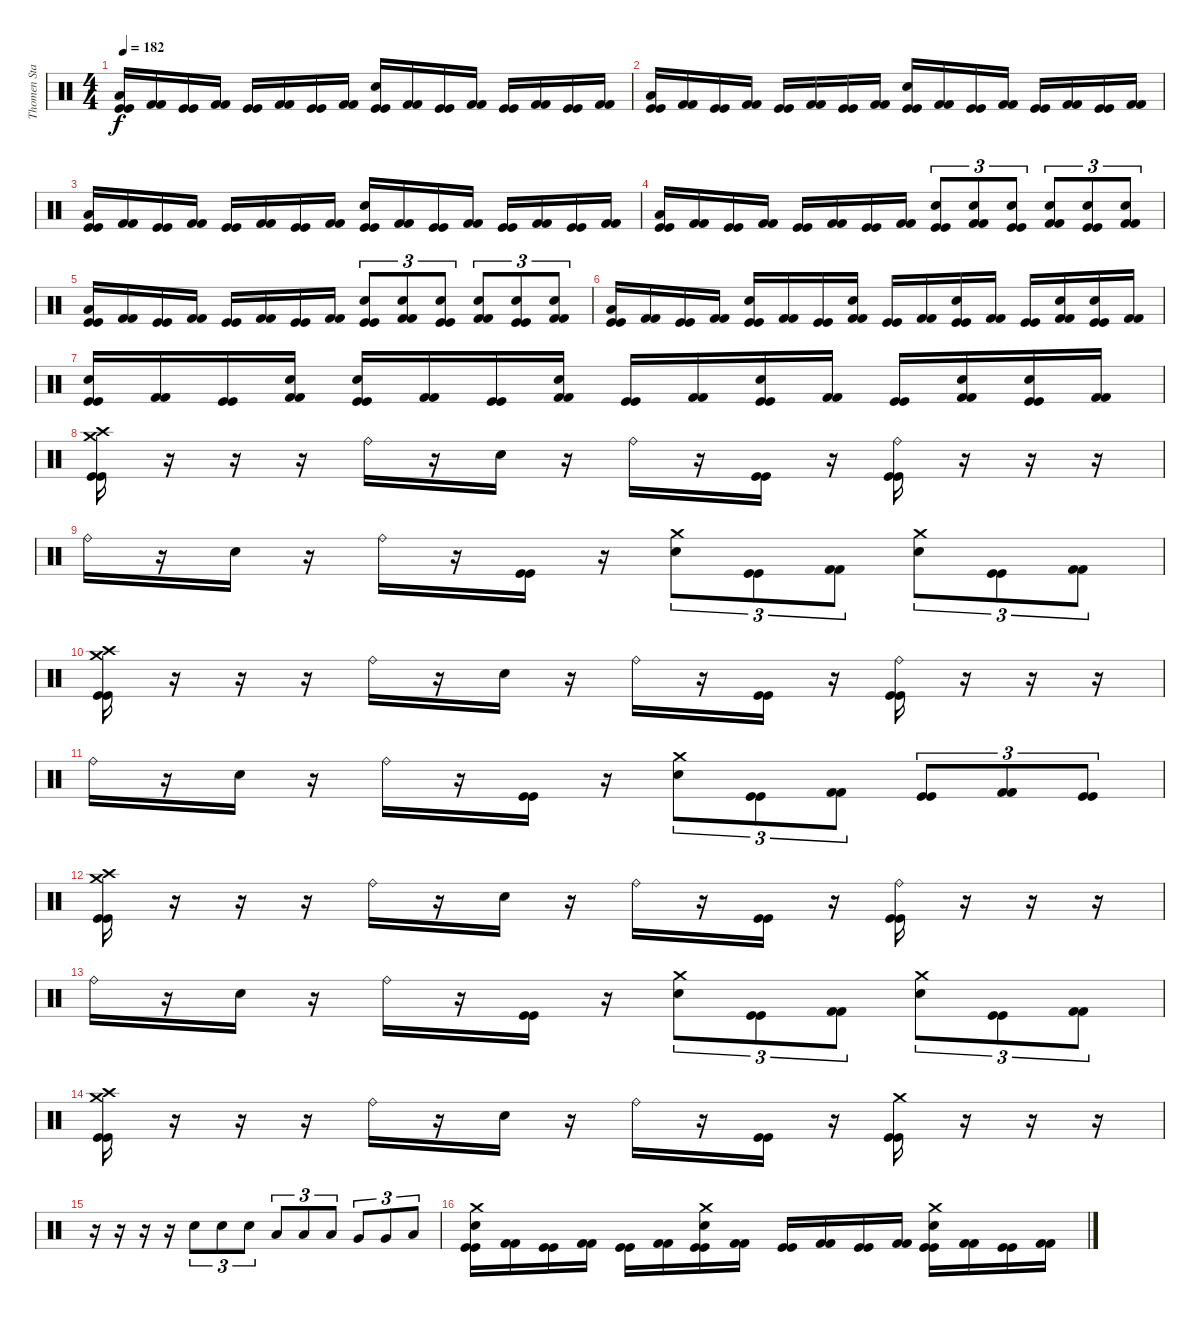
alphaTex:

\track ("Thomen Stauch" "Thomen Sta") {instrument percussion}
\staff {score}
\articulation defaults
\ts (4 4)
\tempo 182
\clef neutral
\ks c
("Low Floor Tom (hit)" "Kick (hit)" "Kick (hit)").16{dy f} ("Kick (hit) 2" "Kick (hit) 2").16 ("Kick (hit)" "Kick (hit)").16 ("Kick (hit) 2" "Kick (hit) 2").16 ("Kick (hit)" "Kick (hit)").16 ("Kick (hit) 2" "Kick (hit) 2").16 ("Kick (hit)" "Kick (hit)").16 ("Kick (hit) 2" "Kick (hit) 2").16 ("Snare (hit) 2" "Kick (hit)" "Kick (hit)").16 ("Kick (hit) 2" "Kick (hit) 2").16 ("Kick (hit)" "Kick (hit)").16 ("Kick (hit) 2" "Kick (hit) 2").16 ("Kick (hit)" "Kick (hit)").16 ("Kick (hit) 2" "Kick (hit) 2").16 ("Kick (hit)" "Kick (hit)").16 ("Kick (hit) 2" "Kick (hit) 2").16 |
("Low Floor Tom (hit)" "Kick (hit)" "Kick (hit)").16 ("Kick (hit) 2" "Kick (hit) 2").16 ("Kick (hit)" "Kick (hit)").16 ("Kick (hit) 2" "Kick (hit) 2").16 ("Kick (hit)" "Kick (hit)").16 ("Kick (hit) 2" "Kick (hit) 2").16 ("Kick (hit)" "Kick (hit)").16 ("Kick (hit) 2" "Kick (hit) 2").16 ("Snare (hit) 2" "Kick (hit)" "Kick (hit)").16 ("Kick (hit) 2" "Kick (hit) 2").16 ("Kick (hit)" "Kick (hit)").16 ("Kick (hit) 2" "Kick (hit) 2").16 ("Kick (hit)" "Kick (hit)").16 ("Kick (hit) 2" "Kick (hit) 2").16 ("Kick (hit)" "Kick (hit)").16 ("Kick (hit) 2" "Kick (hit) 2").16 |
("Low Floor Tom (hit)" "Kick (hit)" "Kick (hit)").16 ("Kick (hit) 2" "Kick (hit) 2").16 ("Kick (hit)" "Kick (hit)").16 ("Kick (hit) 2" "Kick (hit) 2").16 ("Kick (hit)" "Kick (hit)").16 ("Kick (hit) 2" "Kick (hit) 2").16 ("Kick (hit)" "Kick (hit)").16 ("Kick (hit) 2" "Kick (hit) 2").16 ("Snare (hit) 2" "Kick (hit)" "Kick (hit)").16 ("Kick (hit) 2" "Kick (hit) 2").16 ("Kick (hit)" "Kick (hit)").16 ("Kick (hit) 2" "Kick (hit) 2").16 ("Kick (hit)" "Kick (hit)").16 ("Kick (hit) 2" "Kick (hit) 2").16 ("Kick (hit)" "Kick (hit)").16 ("Kick (hit) 2" "Kick (hit) 2").16 |
("Low Floor Tom (hit)" "Kick (hit)" "Kick (hit)").16 ("Kick (hit) 2" "Kick (hit) 2").16 ("Kick (hit)" "Kick (hit)").16 ("Kick (hit) 2" "Kick (hit) 2").16 ("Kick (hit)" "Kick (hit)").16 ("Kick (hit) 2" "Kick (hit) 2").16 ("Kick (hit)" "Kick (hit)").16 ("Kick (hit) 2" "Kick (hit) 2").16 ("Snare (hit) 2" "Kick (hit)" "Kick (hit)").8{tu (3 2)} ("Snare (hit) 2" "Kick (hit) 2" "Kick (hit) 2").8{tu (3 2)} ("Snare (hit) 2" "Kick (hit)" "Kick (hit)").8{tu (3 2)} ("Snare (hit) 2" "Kick (hit) 2" "Kick (hit) 2").8{tu (3 2)} ("Snare (hit) 2" "Kick (hit)" "Kick (hit)").8{tu (3 2)} ("Snare (hit) 2" "Kick (hit) 2" "Kick (hit) 2").8{tu (3 2)} |
("Low Floor Tom (hit)" "Kick (hit)" "Kick (hit)").16 ("Kick (hit) 2" "Kick (hit) 2").16 ("Kick (hit)" "Kick (hit)").16 ("Kick (hit) 2" "Kick (hit) 2").16 ("Kick (hit)" "Kick (hit)").16 ("Kick (hit) 2" "Kick (hit) 2").16 ("Kick (hit)" "Kick (hit)").16 ("Kick (hit) 2" "Kick (hit) 2").16 ("Snare (hit) 2" "Kick (hit)" "Kick (hit)").8{tu (3 2)} ("Snare (hit) 2" "Kick (hit) 2" "Kick (hit) 2").8{tu (3 2)} ("Snare (hit) 2" "Kick (hit)" "Kick (hit)").8{tu (3 2)} ("Snare (hit) 2" "Kick (hit) 2" "Kick (hit) 2").8{tu (3 2)} ("Snare (hit) 2" "Kick (hit)" "Kick (hit)").8{tu (3 2)} ("Snare (hit) 2" "Kick (hit) 2" "Kick (hit) 2").8{tu (3 2)} |
("Low Floor Tom (hit)" "Kick (hit)" "Kick (hit)").16 ("Kick (hit) 2" "Kick (hit) 2").16 ("Kick (hit)" "Kick (hit)").16 ("Kick (hit) 2" "Kick (hit) 2").16 ("Snare (hit) 2" "Kick (hit)" "Kick (hit)").16 ("Kick (hit) 2" "Kick (hit) 2").16 ("Kick (hit)" "Kick (hit)").16 ("Snare (hit) 2" "Kick (hit) 2" "Kick (hit) 2").16 ("Kick (hit)" "Kick (hit)").16 ("Kick (hit) 2" "Kick (hit) 2").16 ("Snare (hit) 2" "Kick (hit)" "Kick (hit)").16 ("Kick (hit) 2" "Kick (hit) 2").16 ("Kick (hit)" "Kick (hit)").16 ("Snare (hit) 2" "Kick (hit) 2" "Kick (hit) 2").16 ("Snare (hit) 2" "Kick (hit)" "Kick (hit)").16 ("Kick (hit) 2" "Kick (hit) 2").16 |
("Snare (hit) 2" "Kick (hit)" "Kick (hit)").16 ("Kick (hit) 2" "Kick (hit) 2").16 ("Kick (hit)" "Kick (hit)").16 ("Snare (hit) 2" "Kick (hit) 2" "Kick (hit) 2").16 ("Snare (hit) 2" "Kick (hit)" "Kick (hit)").16 ("Kick (hit) 2" "Kick (hit) 2").16 ("Kick (hit)" "Kick (hit)").16 ("Snare (hit) 2" "Kick (hit) 2" "Kick (hit) 2").16 ("Kick (hit)" "Kick (hit)").16 ("Kick (hit) 2" "Kick (hit) 2").16 ("Snare (hit) 2" "Kick (hit)" "Kick (hit)").16 ("Kick (hit) 2" "Kick (hit) 2").16 ("Kick (hit)" "Kick (hit)").16 ("Snare (hit) 2" "Kick (hit) 2" "Kick (hit) 2").16 ("Snare (hit) 2" "Kick (hit)" "Kick (hit)").16 ("Kick (hit) 2" "Kick (hit) 2").16 |
("Crash medium (hit)" "Crash high (hit)" "Kick (hit)" "Kick (hit)").16 r.16 r.16 r.16 "Ride (bell)".16 r.16 "Snare (hit) 2".16 r.16 "Ride (bell)".16 r.16 ("Kick (hit)" "Kick (hit)").16 r.16 ("Ride (bell)" "Kick (hit)" "Kick (hit)").16 r.16 r.16 r.16 |
"Ride (bell)".16 r.16 "Snare (hit) 2".16 r.16 "Ride (bell)".16 r.16 ("Kick (hit)" "Kick (hit)").16 r.16 ("Crash medium (hit)" "Snare (hit) 2").8{tu (3 2)} ("Kick (hit)" "Kick (hit)").8{tu (3 2)} ("Kick (hit) 2" "Kick (hit) 2").8{tu (3 2)} ("Crash medium (hit)" "Snare (hit) 2").8{tu (3 2)} ("Kick (hit)" "Kick (hit)").8{tu (3 2)} ("Kick (hit) 2" "Kick (hit) 2").8{tu (3 2)} |
("Crash medium (hit)" "Crash high (hit)" "Kick (hit)" "Kick (hit)").16 r.16 r.16 r.16 "Ride (bell)".16 r.16 "Snare (hit) 2".16 r.16 "Ride (bell)".16 r.16 ("Kick (hit)" "Kick (hit)").16 r.16 ("Ride (bell)" "Kick (hit)" "Kick (hit)").16 r.16 r.16 r.16 |
"Ride (bell)".16 r.16 "Snare (hit) 2".16 r.16 "Ride (bell)".16 r.16 ("Kick (hit)" "Kick (hit)").16 r.16 ("Crash medium (hit)" "Snare (hit) 2").8{tu (3 2)} ("Kick (hit)" "Kick (hit)").8{tu (3 2)} ("Kick (hit) 2" "Kick (hit) 2").8{tu (3 2)} ("Kick (hit)" "Kick (hit)").8{tu (3 2)} ("Kick (hit) 2" "Kick (hit) 2").8{tu (3 2)} ("Kick (hit)" "Kick (hit)").8{tu (3 2)} |
("Crash medium (hit)" "Crash high (hit)" "Kick (hit)" "Kick (hit)").16 r.16 r.16 r.16 "Ride (bell)".16 r.16 "Snare (hit) 2".16 r.16 "Ride (bell)".16 r.16 ("Kick (hit)" "Kick (hit)").16 r.16 ("Ride (bell)" "Kick (hit)" "Kick (hit)").16 r.16 r.16 r.16 |
"Ride (bell)".16 r.16 "Snare (hit) 2".16 r.16 "Ride (bell)".16 r.16 ("Kick (hit)" "Kick (hit)").16 r.16 ("Crash medium (hit)" "Snare (hit) 2").8{tu (3 2)} ("Kick (hit)" "Kick (hit)").8{tu (3 2)} ("Kick (hit) 2" "Kick (hit) 2").8{tu (3 2)} ("Crash medium (hit)" "Snare (hit) 2").8{tu (3 2)} ("Kick (hit)" "Kick (hit)").8{tu (3 2)} ("Kick (hit) 2" "Kick (hit) 2").8{tu (3 2)} |
("Crash medium (hit)" "Crash high (hit)" "Kick (hit)" "Kick (hit)").16 r.16 r.16 r.16 "Ride (bell)".16 r.16 "Snare (hit) 2".16 r.16 "Ride (bell)".16 r.16 ("Kick (hit)" "Kick (hit)").16 r.16 ("Crash medium (hit)" "Kick (hit)" "Kick (hit)").16 r.16 r.16 r.16 |
r.16 r.16 r.16 r.16 "Snare (hit) 2".8{tu (3 2)} "Snare (hit) 2".8{tu (3 2)} "Snare (hit) 2".8{tu (3 2)} "Low Tom (hit)".8{tu (3 2)} "Low Tom (hit)".8{tu (3 2)} "Low Tom (hit)".8{tu (3 2)} "Very Low Tom (hit)".8{tu (3 2)} "Very Low Tom (hit)".8{tu (3 2)} "Low Floor Tom (hit)".8{tu (3 2)} |
("Crash medium (hit)" "Snare (hit) 2" "Kick (hit)" "Kick (hit)").16 ("Kick (hit) 2" "Kick (hit) 2").16 ("Kick (hit)" "Kick (hit)").16 ("Kick (hit) 2" "Kick (hit) 2").16 ("Kick (hit)" "Kick (hit)").16 ("Kick (hit) 2" "Kick (hit) 2").16 ("Crash medium (hit)" "Snare (hit) 2" "Kick (hit)" "Kick (hit)").16 ("Kick (hit) 2" "Kick (hit) 2").16 ("Kick (hit)" "Kick (hit)").16 ("Kick (hit) 2" "Kick (hit) 2").16 ("Kick (hit)" "Kick (hit)").16 ("Kick (hit) 2" "Kick (hit) 2").16 ("Crash medium (hit)" "Snare (hit) 2" "Kick (hit)" "Kick (hit)").16 ("Kick (hit) 2" "Kick (hit) 2").16 ("Kick (hit)" "Kick (hit)").16 ("Kick (hit) 2" "Kick (hit) 2").16
